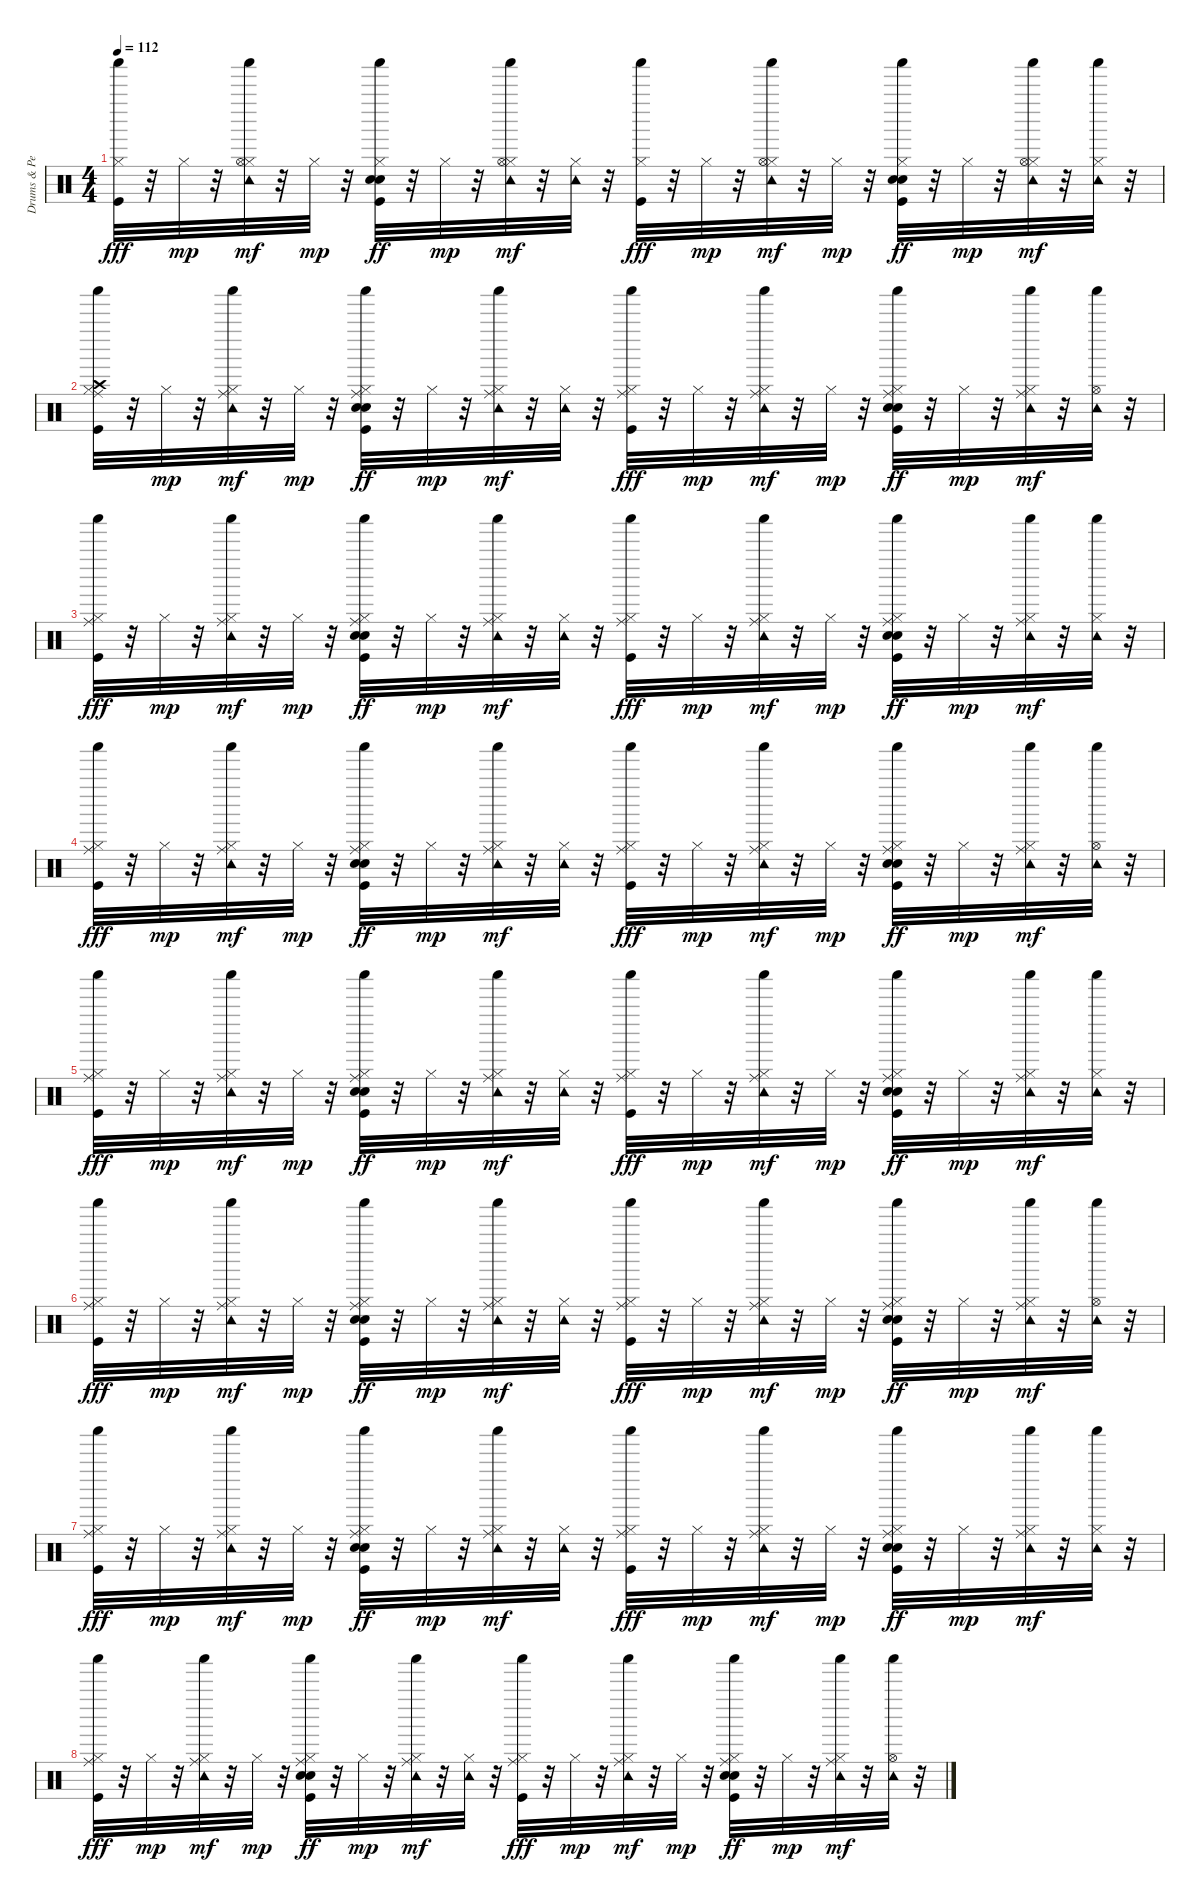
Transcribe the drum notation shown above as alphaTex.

\track ("Drums & Percussion" "Drums & Pe") {instrument percussion}
\staff {score}
\articulation defaults
\ts (4 4)
\tempo 112
\clef neutral
\ks c
("Shaker (hit)" "Hi-Hat (closed)" "Kick (hit)").32{dy fff} r.32 "Hi-Hat (closed)".32{dy mp} r.32 ("Shaker (hit)" "Hi-Hat (closed)" "Hi-Hat (open)" "Tambourine (hit)").32{dy mf} r.32 "Hi-Hat (closed)".32{dy mp} r.32 ("Shaker (hit)" "Snare (hit) 2" "Hi-Hat (closed)" "Hand Clap (hit)" "Kick (hit)").32{dy ff} r.32 "Hi-Hat (closed)".32{dy mp} r.32 ("Shaker (hit)" "Hi-Hat (closed)" "Hi-Hat (open)" "Tambourine (hit)").32{dy mf} r.32 ("Hi-Hat (closed)" "Tambourine (hit)").32 r.32 ("Shaker (hit)" "Hi-Hat (closed)" "Kick (hit)").32{dy fff} r.32 "Hi-Hat (closed)".32{dy mp} r.32 ("Shaker (hit)" "Hi-Hat (closed)" "Hi-Hat (open)" "Tambourine (hit)").32{dy mf} r.32 "Hi-Hat (closed)".32{dy mp} r.32 ("Shaker (hit)" "Snare (hit) 2" "Hi-Hat (closed)" "Hand Clap (hit)" "Kick (hit)").32{dy ff} r.32 "Hi-Hat (closed)".32{dy mp} r.32 ("Shaker (hit)" "Hi-Hat (closed)" "Hi-Hat (open)" "Tambourine (hit)").32{dy mf} r.32 ("Shaker (hit)" "Hi-Hat (closed)" "Tambourine (hit)").32 r.32 |
("Shaker (hit)" "Hi-Hat (closed)" "Ride (middle)" "Crash high (hit)" "Kick (hit)").32 r.32 "Hi-Hat (closed)".32{dy mp} r.32 ("Shaker (hit)" "Hi-Hat (closed)" "Ride (middle)" "Tambourine (hit)").32{dy mf} r.32 "Hi-Hat (closed)".32{dy mp} r.32 ("Shaker (hit)" "Snare (hit) 2" "Hi-Hat (closed)" "Ride (middle)" "Hand Clap (hit)" "Kick (hit)").32{dy ff} r.32 "Hi-Hat (closed)".32{dy mp} r.32 ("Shaker (hit)" "Hi-Hat (closed)" "Ride (middle)" "Tambourine (hit)").32{dy mf} r.32 ("Hi-Hat (closed)" "Tambourine (hit)").32 r.32 ("Shaker (hit)" "Hi-Hat (closed)" "Ride (middle)" "Kick (hit)").32{dy fff} r.32 "Hi-Hat (closed)".32{dy mp} r.32 ("Shaker (hit)" "Hi-Hat (closed)" "Ride (middle)" "Tambourine (hit)").32{dy mf} r.32 "Hi-Hat (closed)".32{dy mp} r.32 ("Shaker (hit)" "Snare (hit) 2" "Hi-Hat (closed)" "Ride (middle)" "Hand Clap (hit)" "Kick (hit)").32{dy ff} r.32 "Hi-Hat (closed)".32{dy mp} r.32 ("Shaker (hit)" "Hi-Hat (closed)" "Ride (middle)" "Tambourine (hit)").32{dy mf} r.32 ("Hi-Hat (open)" "Shaker (hit)" "Tambourine (hit)").32 r.32 |
("Shaker (hit)" "Hi-Hat (closed)" "Ride (middle)" "Kick (hit)").32{dy fff} r.32 "Hi-Hat (closed)".32{dy mp} r.32 ("Shaker (hit)" "Hi-Hat (closed)" "Ride (middle)" "Tambourine (hit)").32{dy mf} r.32 "Hi-Hat (closed)".32{dy mp} r.32 ("Shaker (hit)" "Snare (hit) 2" "Hi-Hat (closed)" "Ride (middle)" "Hand Clap (hit)" "Kick (hit)").32{dy ff} r.32 "Hi-Hat (closed)".32{dy mp} r.32 ("Shaker (hit)" "Hi-Hat (closed)" "Ride (middle)" "Tambourine (hit)").32{dy mf} r.32 ("Hi-Hat (closed)" "Tambourine (hit)").32 r.32 ("Shaker (hit)" "Hi-Hat (closed)" "Ride (middle)" "Kick (hit)").32{dy fff} r.32 "Hi-Hat (closed)".32{dy mp} r.32 ("Shaker (hit)" "Hi-Hat (closed)" "Ride (middle)" "Tambourine (hit)").32{dy mf} r.32 "Hi-Hat (closed)".32{dy mp} r.32 ("Shaker (hit)" "Snare (hit) 2" "Hi-Hat (closed)" "Ride (middle)" "Hand Clap (hit)" "Kick (hit)").32{dy ff} r.32 "Hi-Hat (closed)".32{dy mp} r.32 ("Shaker (hit)" "Hi-Hat (closed)" "Ride (middle)" "Tambourine (hit)").32{dy mf} r.32 ("Shaker (hit)" "Hi-Hat (closed)" "Tambourine (hit)").32 r.32 |
("Shaker (hit)" "Hi-Hat (closed)" "Ride (middle)" "Kick (hit)").32{dy fff} r.32 "Hi-Hat (closed)".32{dy mp} r.32 ("Shaker (hit)" "Hi-Hat (closed)" "Ride (middle)" "Tambourine (hit)").32{dy mf} r.32 "Hi-Hat (closed)".32{dy mp} r.32 ("Shaker (hit)" "Snare (hit) 2" "Hi-Hat (closed)" "Ride (middle)" "Hand Clap (hit)" "Kick (hit)").32{dy ff} r.32 "Hi-Hat (closed)".32{dy mp} r.32 ("Shaker (hit)" "Hi-Hat (closed)" "Ride (middle)" "Tambourine (hit)").32{dy mf} r.32 ("Hi-Hat (closed)" "Tambourine (hit)").32 r.32 ("Shaker (hit)" "Hi-Hat (closed)" "Ride (middle)" "Kick (hit)").32{dy fff} r.32 "Hi-Hat (closed)".32{dy mp} r.32 ("Shaker (hit)" "Hi-Hat (closed)" "Ride (middle)" "Tambourine (hit)").32{dy mf} r.32 "Hi-Hat (closed)".32{dy mp} r.32 ("Shaker (hit)" "Snare (hit) 2" "Hi-Hat (closed)" "Ride (middle)" "Hand Clap (hit)" "Kick (hit)").32{dy ff} r.32 "Hi-Hat (closed)".32{dy mp} r.32 ("Shaker (hit)" "Hi-Hat (closed)" "Ride (middle)" "Tambourine (hit)").32{dy mf} r.32 ("Hi-Hat (open)" "Shaker (hit)" "Tambourine (hit)").32 r.32 |
("Shaker (hit)" "Hi-Hat (closed)" "Ride (middle)" "Kick (hit)").32{dy fff} r.32 "Hi-Hat (closed)".32{dy mp} r.32 ("Shaker (hit)" "Hi-Hat (closed)" "Ride (middle)" "Tambourine (hit)").32{dy mf} r.32 "Hi-Hat (closed)".32{dy mp} r.32 ("Shaker (hit)" "Snare (hit) 2" "Hi-Hat (closed)" "Ride (middle)" "Hand Clap (hit)" "Kick (hit)").32{dy ff} r.32 "Hi-Hat (closed)".32{dy mp} r.32 ("Shaker (hit)" "Hi-Hat (closed)" "Ride (middle)" "Tambourine (hit)").32{dy mf} r.32 ("Hi-Hat (closed)" "Tambourine (hit)").32 r.32 ("Shaker (hit)" "Hi-Hat (closed)" "Ride (middle)" "Kick (hit)").32{dy fff} r.32 "Hi-Hat (closed)".32{dy mp} r.32 ("Shaker (hit)" "Hi-Hat (closed)" "Ride (middle)" "Tambourine (hit)").32{dy mf} r.32 "Hi-Hat (closed)".32{dy mp} r.32 ("Shaker (hit)" "Snare (hit) 2" "Hi-Hat (closed)" "Ride (middle)" "Hand Clap (hit)" "Kick (hit)").32{dy ff} r.32 "Hi-Hat (closed)".32{dy mp} r.32 ("Shaker (hit)" "Hi-Hat (closed)" "Ride (middle)" "Tambourine (hit)").32{dy mf} r.32 ("Shaker (hit)" "Hi-Hat (closed)" "Tambourine (hit)").32 r.32 |
("Shaker (hit)" "Hi-Hat (closed)" "Ride (middle)" "Kick (hit)").32{dy fff} r.32 "Hi-Hat (closed)".32{dy mp} r.32 ("Shaker (hit)" "Hi-Hat (closed)" "Ride (middle)" "Tambourine (hit)").32{dy mf} r.32 "Hi-Hat (closed)".32{dy mp} r.32 ("Shaker (hit)" "Snare (hit) 2" "Hi-Hat (closed)" "Ride (middle)" "Hand Clap (hit)" "Kick (hit)").32{dy ff} r.32 "Hi-Hat (closed)".32{dy mp} r.32 ("Shaker (hit)" "Hi-Hat (closed)" "Ride (middle)" "Tambourine (hit)").32{dy mf} r.32 ("Hi-Hat (closed)" "Tambourine (hit)").32 r.32 ("Shaker (hit)" "Hi-Hat (closed)" "Ride (middle)" "Kick (hit)").32{dy fff} r.32 "Hi-Hat (closed)".32{dy mp} r.32 ("Shaker (hit)" "Hi-Hat (closed)" "Ride (middle)" "Tambourine (hit)").32{dy mf} r.32 "Hi-Hat (closed)".32{dy mp} r.32 ("Shaker (hit)" "Snare (hit) 2" "Hi-Hat (closed)" "Ride (middle)" "Hand Clap (hit)" "Kick (hit)").32{dy ff} r.32 "Hi-Hat (closed)".32{dy mp} r.32 ("Shaker (hit)" "Hi-Hat (closed)" "Ride (middle)" "Tambourine (hit)").32{dy mf} r.32 ("Hi-Hat (open)" "Shaker (hit)" "Tambourine (hit)").32 r.32 |
("Shaker (hit)" "Hi-Hat (closed)" "Ride (middle)" "Kick (hit)").32{dy fff} r.32 "Hi-Hat (closed)".32{dy mp} r.32 ("Shaker (hit)" "Hi-Hat (closed)" "Ride (middle)" "Tambourine (hit)").32{dy mf} r.32 "Hi-Hat (closed)".32{dy mp} r.32 ("Shaker (hit)" "Snare (hit) 2" "Hi-Hat (closed)" "Ride (middle)" "Hand Clap (hit)" "Kick (hit)").32{dy ff} r.32 "Hi-Hat (closed)".32{dy mp} r.32 ("Shaker (hit)" "Hi-Hat (closed)" "Ride (middle)" "Tambourine (hit)").32{dy mf} r.32 ("Hi-Hat (closed)" "Tambourine (hit)").32 r.32 ("Shaker (hit)" "Hi-Hat (closed)" "Ride (middle)" "Kick (hit)").32{dy fff} r.32 "Hi-Hat (closed)".32{dy mp} r.32 ("Shaker (hit)" "Hi-Hat (closed)" "Ride (middle)" "Tambourine (hit)").32{dy mf} r.32 "Hi-Hat (closed)".32{dy mp} r.32 ("Shaker (hit)" "Snare (hit) 2" "Hi-Hat (closed)" "Ride (middle)" "Hand Clap (hit)" "Kick (hit)").32{dy ff} r.32 "Hi-Hat (closed)".32{dy mp} r.32 ("Shaker (hit)" "Hi-Hat (closed)" "Ride (middle)" "Tambourine (hit)").32{dy mf} r.32 ("Shaker (hit)" "Hi-Hat (closed)" "Tambourine (hit)").32 r.32 |
("Shaker (hit)" "Hi-Hat (closed)" "Ride (middle)" "Kick (hit)").32{dy fff} r.32 "Hi-Hat (closed)".32{dy mp} r.32 ("Shaker (hit)" "Hi-Hat (closed)" "Ride (middle)" "Tambourine (hit)").32{dy mf} r.32 "Hi-Hat (closed)".32{dy mp} r.32 ("Shaker (hit)" "Snare (hit) 2" "Hi-Hat (closed)" "Ride (middle)" "Hand Clap (hit)" "Kick (hit)").32{dy ff} r.32 "Hi-Hat (closed)".32{dy mp} r.32 ("Shaker (hit)" "Hi-Hat (closed)" "Ride (middle)" "Tambourine (hit)").32{dy mf} r.32 ("Hi-Hat (closed)" "Tambourine (hit)").32 r.32 ("Shaker (hit)" "Hi-Hat (closed)" "Ride (middle)" "Kick (hit)").32{dy fff} r.32 "Hi-Hat (closed)".32{dy mp} r.32 ("Shaker (hit)" "Hi-Hat (closed)" "Ride (middle)" "Tambourine (hit)").32{dy mf} r.32 "Hi-Hat (closed)".32{dy mp} r.32 ("Shaker (hit)" "Snare (hit) 2" "Hi-Hat (closed)" "Ride (middle)" "Hand Clap (hit)" "Kick (hit)").32{dy ff} r.32 "Hi-Hat (closed)".32{dy mp} r.32 ("Shaker (hit)" "Hi-Hat (closed)" "Ride (middle)" "Tambourine (hit)").32{dy mf} r.32 ("Hi-Hat (open)" "Shaker (hit)" "Tambourine (hit)").32 r.32
